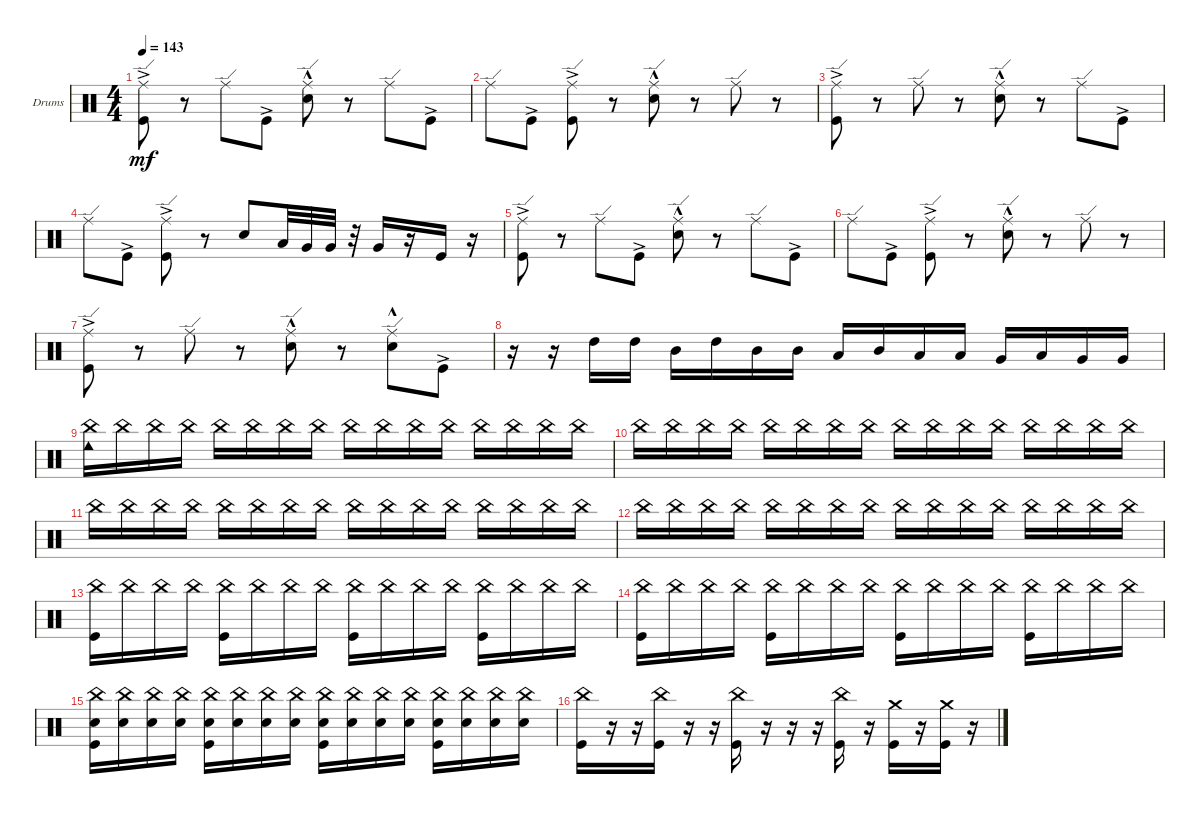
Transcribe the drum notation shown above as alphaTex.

\defaultSystemsLayout 4
\bracketExtendMode groupsimilarinstruments
\firstSystemTrackNameOrientation horizontal
\otherSystemsTrackNameOrientation horizontal
\track ("Drumkit" "Drums") {instrument percussion}
\staff {score}
\articulation defaults
\ts (4 4)
\tempo 143
\clef neutral
\scale
0.474178
\ks c
("Kick (hit)"{ac} "Ride (edge)").8{dy mf} r.8 "Ride (edge)".8 "Kick (hit)"{ac}.8 ("Snare (hit) 2"{hac} "Ride (edge)").8 r.8 "Ride (edge)".8 "Kick (hit)"{ac}.8 |
\scale
0.262911 "Ride (edge)".8 "Kick (hit)"{ac}.8 ("Kick (hit)"{ac} "Ride (edge)").8 r.8 ("Snare (hit) 2"{hac} "Ride (edge)").8 r.8 "Ride (edge)".8 r.8 |
\scale
0.262911 ("Kick (hit)"{ac} "Ride (edge)").8 r.8 "Ride (edge)".8 r.8 ("Snare (hit) 2"{hac} "Ride (edge)").8 r.8 "Ride (edge)".8 "Kick (hit)"{ac}.8 |
\scale
0.333333 "Ride (edge)".8 "Kick (hit)"{ac}.8 ("Kick (hit)"{ac} "Ride (edge)").8 r.8 "Snare (hit) 2".8 "Low Tom (hit)".32 "Very Low Tom (hit)".32 "Very Low Tom (hit)".32 r.32 "Very Low Tom (hit)".16 r.16 "Kick (hit)".16 r.16 |
\scale
0.333333 ("Kick (hit)"{ac} "Ride (edge)").8 r.8 "Ride (edge)".8 "Kick (hit)"{ac}.8 ("Snare (hit) 2"{hac} "Ride (edge)").8 r.8 "Ride (edge)".8 "Kick (hit)"{ac}.8 |
\scale
0.333333 "Ride (edge)".8 "Kick (hit)"{ac}.8 ("Kick (hit)"{ac} "Ride (edge)").8 r.8 ("Snare (hit) 2"{hac} "Ride (edge)").8 r.8 "Ride (edge)".8 r.8 |
\scale
0.333333 ("Kick (hit)"{ac} "Ride (edge)").8 r.8 "Ride (edge)".8 r.8 ("Snare (hit) 2"{hac} "Ride (edge)").8 r.8 ("Ride (edge)" "Snare (hit) 2"{hac}).8 "Kick (hit)"{ac}.8 |
\scale
0.333333 r.16 r.16 "High Tom (hit)".16 "High Tom (hit)".16 "Mid Tom (hit)".16 "High Tom (hit)".16 "Mid Tom (hit)".16 "Mid Tom (hit)".16 "Low Tom (hit)".16 "Mid Tom (hit)".16 "Low Tom (hit)".16 "Low Tom (hit)".16 "Very Low Tom (hit)".16 "Low Tom (hit)".16 "Very Low Tom (hit)".16 "Very Low Tom (hit)".16 |
\scale
0.333333 ("Cowbell low (hit)" "China (hit)").16 "China (hit)".16 "China (hit)".16 "China (hit)".16 "China (hit)".16 "China (hit)".16 "China (hit)".16 "China (hit)".16 "China (hit)".16 "China (hit)".16 "China (hit)".16 "China (hit)".16 "China (hit)".16 "China (hit)".16 "China (hit)".16 "China (hit)".16 |
\scale
0.333333 "China (hit)".16 "China (hit)".16 "China (hit)".16 "China (hit)".16 "China (hit)".16 "China (hit)".16 "China (hit)".16 "China (hit)".16 "China (hit)".16 "China (hit)".16 "China (hit)".16 "China (hit)".16 "China (hit)".16 "China (hit)".16 "China (hit)".16 "China (hit)".16 |
\scale
0.333333 "China (hit)".16 "China (hit)".16 "China (hit)".16 "China (hit)".16 "China (hit)".16 "China (hit)".16 "China (hit)".16 "China (hit)".16 "China (hit)".16 "China (hit)".16 "China (hit)".16 "China (hit)".16 "China (hit)".16 "China (hit)".16 "China (hit)".16 "China (hit)".16 |
\scale
0.333333 "China (hit)".16 "China (hit)".16 "China (hit)".16 "China (hit)".16 "China (hit)".16 "China (hit)".16 "China (hit)".16 "China (hit)".16 "China (hit)".16 "China (hit)".16 "China (hit)".16 "China (hit)".16 "China (hit)".16 "China (hit)".16 "China (hit)".16 "China (hit)".16 |
\scale
0.333333 ("China (hit)" "Kick (hit)").16 "China (hit)".16 "China (hit)".16 "China (hit)".16 ("China (hit)" "Kick (hit)").16 "China (hit)".16 "China (hit)".16 "China (hit)".16 ("China (hit)" "Kick (hit)").16 "China (hit)".16 "China (hit)".16 "China (hit)".16 ("China (hit)" "Kick (hit)").16 "China (hit)".16 "China (hit)".16 "China (hit)".16 |
\scale
0.333333 ("China (hit)" "Kick (hit)").16 "China (hit)".16 "China (hit)".16 "China (hit)".16 ("China (hit)" "Kick (hit)").16 "China (hit)".16 "China (hit)".16 "China (hit)".16 ("China (hit)" "Kick (hit)").16 "China (hit)".16 "China (hit)".16 "China (hit)".16 ("China (hit)" "Kick (hit)").16 "China (hit)".16 "China (hit)".16 "China (hit)".16 |
\scale
0.333333 ("China (hit)" "Kick (hit)" "Snare (hit) 2").16 ("China (hit)" "Snare (hit) 2").16 ("China (hit)" "Snare (hit) 2").16 ("China (hit)" "Snare (hit) 2").16 ("China (hit)" "Kick (hit)" "Snare (hit) 2").16 ("China (hit)" "Snare (hit) 2").16 ("China (hit)" "Snare (hit) 2").16 ("China (hit)" "Snare (hit) 2").16 ("China (hit)" "Kick (hit)" "Snare (hit) 2").16 ("China (hit)" "Snare (hit) 2").16 ("China (hit)" "Snare (hit) 2").16 ("China (hit)" "Snare (hit) 2").16 ("China (hit)" "Kick (hit)" "Snare (hit) 2").16 ("China (hit)" "Snare (hit) 2").16 ("China (hit)" "Snare (hit) 2").16 ("China (hit)" "Snare (hit) 2").16 |
\scale
0.333333 ("Kick (hit)" "China (hit)").16 r.16 r.16 ("Kick (hit)" "China (hit)").16 r.16 r.16 ("Kick (hit)" "China (hit)").16 r.16 r.16 r.16 ("Kick (hit)" "China (hit)").16 r.16 ("Kick (hit)" "Crash medium (hit)").16 r.16 ("Kick (hit)" "Crash medium (hit)").16 r.16
